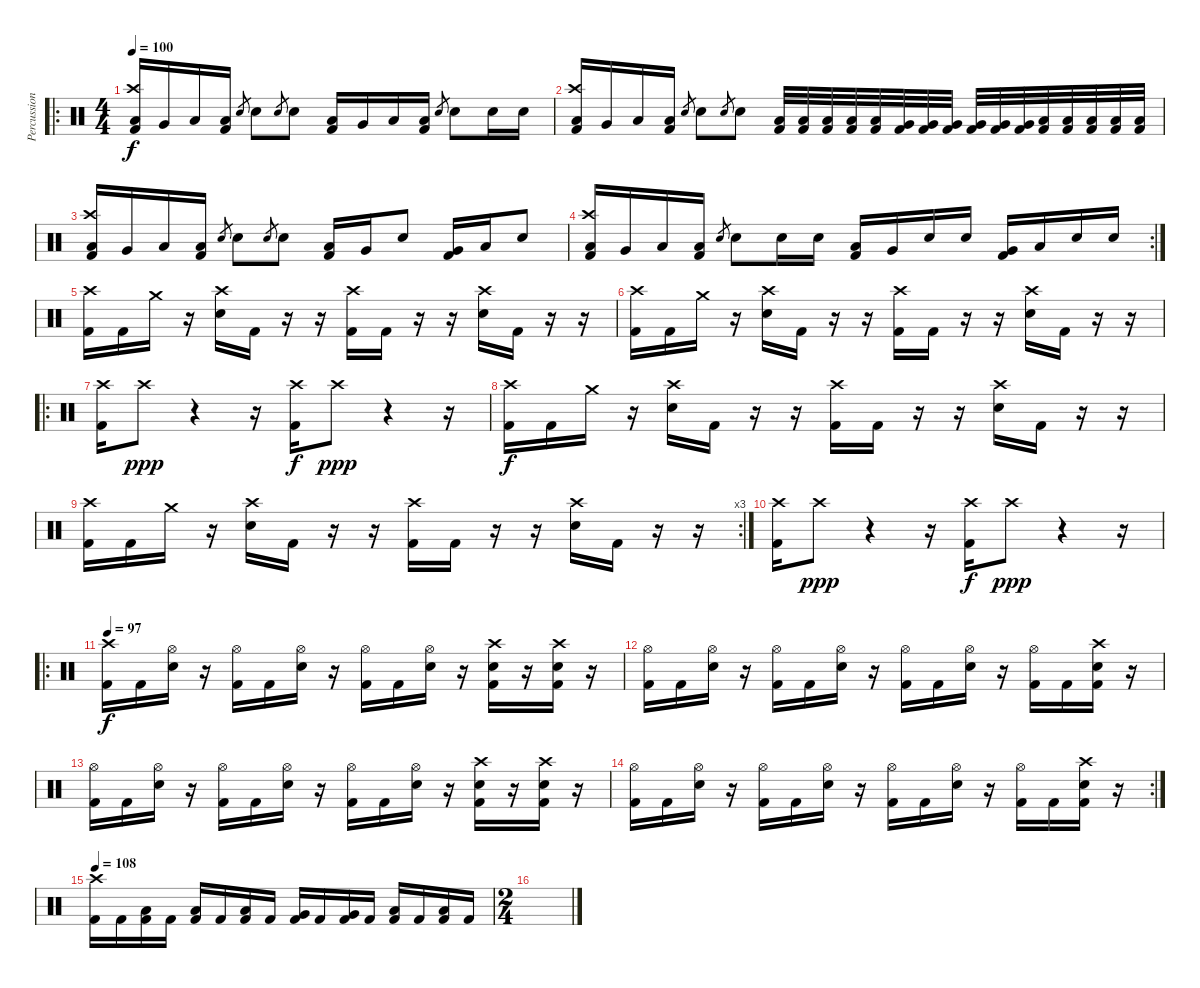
\track ("Percussion" "Percussion") {instrument percussion}
\staff {score}
\articulation defaults
\ro
\ts (4 4)
\tempo 100
\clef neutral
\ks c
("Low Tom (hit)" "Crash high (hit)" "Kick (hit) 2").16{dy f} "Very Low Tom (hit)".16 "Low Floor Tom (hit)".16 ("Low Floor Tom (hit)" "Kick (hit) 2").16 "Snare (hit) 2".8{gr} "Snare (hit) 2".8 "Snare (hit) 2".8{gr} "Snare (hit) 2".8 ("Low Tom (hit)" "Kick (hit) 2").16 "Very Low Tom (hit)".16 "Low Floor Tom (hit)".16 ("Low Floor Tom (hit)" "Kick (hit) 2").16 "Snare (hit) 2".8{gr} "Snare (hit) 2".8 "Snare (hit) 2".16 "Snare (hit) 2".16 |
("Low Tom (hit)" "Crash high (hit)" "Kick (hit) 2").16 "Very Low Tom (hit)".16 "Low Floor Tom (hit)".16 ("Low Floor Tom (hit)" "Kick (hit) 2").16 "Snare (hit) 2".8{gr} "Snare (hit) 2".8 "Snare (hit) 2".8{gr} "Snare (hit) 2".8 ("Low Tom (hit)" "Kick (hit) 2").32 ("Low Tom (hit)" "Kick (hit) 2").32 ("Low Tom (hit)" "Kick (hit) 2").32 ("Low Tom (hit)" "Kick (hit) 2").32 ("Low Tom (hit)" "Kick (hit) 2").32 ("Very Low Tom (hit)" "Kick (hit) 2").32 ("Very Low Tom (hit)" "Kick (hit) 2").32 ("Very Low Tom (hit)" "Kick (hit) 2").32 ("Very Low Tom (hit)" "Kick (hit) 2").32 ("Very Low Tom (hit)" "Kick (hit) 2").32 ("Very Low Tom (hit)" "Kick (hit) 2").32 ("Low Floor Tom (hit)" "Kick (hit) 2").32 ("Low Floor Tom (hit)" "Kick (hit) 2").32 ("Low Floor Tom (hit)" "Kick (hit) 2").32 ("Low Floor Tom (hit)" "Kick (hit) 2").32 ("Low Floor Tom (hit)" "Kick (hit) 2").32 |
("Low Tom (hit)" "Crash high (hit)" "Kick (hit) 2").16 "Very Low Tom (hit)".16 "Low Floor Tom (hit)".16 ("Low Floor Tom (hit)" "Kick (hit) 2").16 "Snare (hit) 2".8{gr} "Snare (hit) 2".8 "Snare (hit) 2".8{gr} "Snare (hit) 2".8 ("Low Tom (hit)" "Kick (hit) 2").16 "Very Low Tom (hit)".16 "Snare (hit) 2".8 ("Very Low Tom (hit)" "Kick (hit) 2").16 "Low Floor Tom (hit)".16 "Snare (hit) 2".8 |
\rc 2
("Low Tom (hit)" "Crash high (hit)" "Kick (hit) 2").16 "Very Low Tom (hit)".16 "Low Floor Tom (hit)".16 ("Low Floor Tom (hit)" "Kick (hit) 2").16 "Snare (hit) 2".8{gr} "Snare (hit) 2".8 "Snare (hit) 2".16 "Snare (hit) 2".16 ("Low Tom (hit)" "Kick (hit) 2").16 "Very Low Tom (hit)".16 "Snare (hit) 2".16 "Snare (hit) 2".16 ("Very Low Tom (hit)" "Kick (hit) 2").16 "Low Floor Tom (hit)".16 "Snare (hit) 2".16 "Snare (hit) 2".16 |
("Crash high (hit)" "Kick (hit) 2").16 "Kick (hit) 2".16 "Crash medium (hit)".16 r.16 ("Crash high (hit)" "Snare (hit) 2").16 "Kick (hit) 2".16 r.16 r.16 ("Crash high (hit)" "Kick (hit) 2").16 "Kick (hit) 2".16 r.16 r.16 ("Crash high (hit)" "Snare (hit) 2").16 "Kick (hit) 2".16 r.16 r.16 |
("Crash high (hit)" "Kick (hit) 2").16 "Kick (hit) 2".16 "Crash medium (hit)".16 r.16 ("Crash high (hit)" "Snare (hit) 2").16 "Kick (hit) 2".16 r.16 r.16 ("Crash high (hit)" "Kick (hit) 2").16 "Kick (hit) 2".16 r.16 r.16 ("Crash high (hit)" "Snare (hit) 2").16 "Kick (hit) 2".16 r.16 r.16 |
\ro
("Crash high (hit)" "Kick (hit) 2").16 "Crash high (hit)".8{dy ppp} r.4 r.16 ("Crash high (hit)" "Kick (hit) 2").16{dy f} "Crash high (hit)".8{dy ppp} r.4 r.16 |
("Crash high (hit)" "Kick (hit) 2").16{dy f} "Kick (hit) 2".16 "Crash medium (hit)".16 r.16 ("Crash high (hit)" "Snare (hit) 2").16 "Kick (hit) 2".16 r.16 r.16 ("Crash high (hit)" "Kick (hit) 2").16 "Kick (hit) 2".16 r.16 r.16 ("Crash high (hit)" "Snare (hit) 2").16 "Kick (hit) 2".16 r.16 r.16 |
\rc 3
("Crash high (hit)" "Kick (hit) 2").16 "Kick (hit) 2".16 "Crash medium (hit)".16 r.16 ("Crash high (hit)" "Snare (hit) 2").16 "Kick (hit) 2".16 r.16 r.16 ("Crash high (hit)" "Kick (hit) 2").16 "Kick (hit) 2".16 r.16 r.16 ("Crash high (hit)" "Snare (hit) 2").16 "Kick (hit) 2".16 r.16 r.16 |
("Crash high (hit)" "Kick (hit) 2").16 "Crash high (hit)".8{dy ppp} r.4 r.16 ("Crash high (hit)" "Kick (hit) 2").16{dy f} "Crash high (hit)".8{dy ppp} r.4 r.16 |
\ro
\tempo 97
("Crash high (hit)" "Kick (hit) 2").16{dy f} "Kick (hit) 2".16 ("Hi-Hat (open)" "Snare (hit) 2").16 r.16 ("Hi-Hat (open)" "Kick (hit) 2").16 "Kick (hit) 2".16 ("Hi-Hat (open)" "Snare (hit) 2").16 r.16 ("Hi-Hat (open)" "Kick (hit) 2").16 "Kick (hit) 2".16 ("Hi-Hat (open)" "Snare (hit) 2").16 r.16 ("Crash high (hit)" "Snare (hit) 2" "Kick (hit) 2").16 r.16 ("Crash high (hit)" "Snare (hit) 2" "Kick (hit) 2").16 r.16 |
("Hi-Hat (open)" "Kick (hit) 2").16 "Kick (hit) 2".16 ("Hi-Hat (open)" "Snare (hit) 2").16 r.16 ("Hi-Hat (open)" "Kick (hit) 2").16 "Kick (hit) 2".16 ("Hi-Hat (open)" "Snare (hit) 2").16 r.16 ("Hi-Hat (open)" "Kick (hit) 2").16 "Kick (hit) 2".16 ("Hi-Hat (open)" "Snare (hit) 2").16 r.16 ("Hi-Hat (open)" "Kick (hit) 2").16 "Kick (hit) 2".16 ("Crash high (hit)" "Snare (hit) 2" "Kick (hit) 2").16 r.16 |
("Hi-Hat (open)" "Kick (hit) 2").16 "Kick (hit) 2".16 ("Hi-Hat (open)" "Snare (hit) 2").16 r.16 ("Hi-Hat (open)" "Kick (hit) 2").16 "Kick (hit) 2".16 ("Hi-Hat (open)" "Snare (hit) 2").16 r.16 ("Hi-Hat (open)" "Kick (hit) 2").16 "Kick (hit) 2".16 ("Hi-Hat (open)" "Snare (hit) 2").16 r.16 ("Crash high (hit)" "Snare (hit) 2" "Kick (hit) 2").16 r.16 ("Crash high (hit)" "Snare (hit) 2" "Kick (hit) 2").16 r.16 |
\rc 2
("Hi-Hat (open)" "Kick (hit) 2").16 "Kick (hit) 2".16 ("Hi-Hat (open)" "Snare (hit) 2").16 r.16 ("Hi-Hat (open)" "Kick (hit) 2").16 "Kick (hit) 2".16 ("Hi-Hat (open)" "Snare (hit) 2").16 r.16 ("Hi-Hat (open)" "Kick (hit) 2").16 "Kick (hit) 2".16 ("Hi-Hat (open)" "Snare (hit) 2").16 r.16 ("Hi-Hat (open)" "Kick (hit) 2").16 "Kick (hit) 2".16 ("Crash high (hit)" "Snare (hit) 2" "Kick (hit) 2").16 r.16 |
\tempo 108
("Kick (hit) 2" "Crash high (hit)").16 "Kick (hit) 2".16 ("Kick (hit) 2" "Low Tom (hit)").16 "Kick (hit) 2".16 ("Kick (hit) 2" "Low Tom (hit)").16 "Kick (hit) 2".16 ("Kick (hit) 2" "Low Tom (hit)").16 "Kick (hit) 2".16 ("Kick (hit) 2" "Very Low Tom (hit)").16 "Kick (hit) 2".16 ("Kick (hit) 2" "Very Low Tom (hit)").16 "Kick (hit) 2".16 ("Kick (hit) 2" "Low Floor Tom (hit)").16 "Kick (hit) 2".16 ("Kick (hit) 2" "Low Floor Tom (hit)").16 "Kick (hit) 2".16 |
\ts (2 4)
